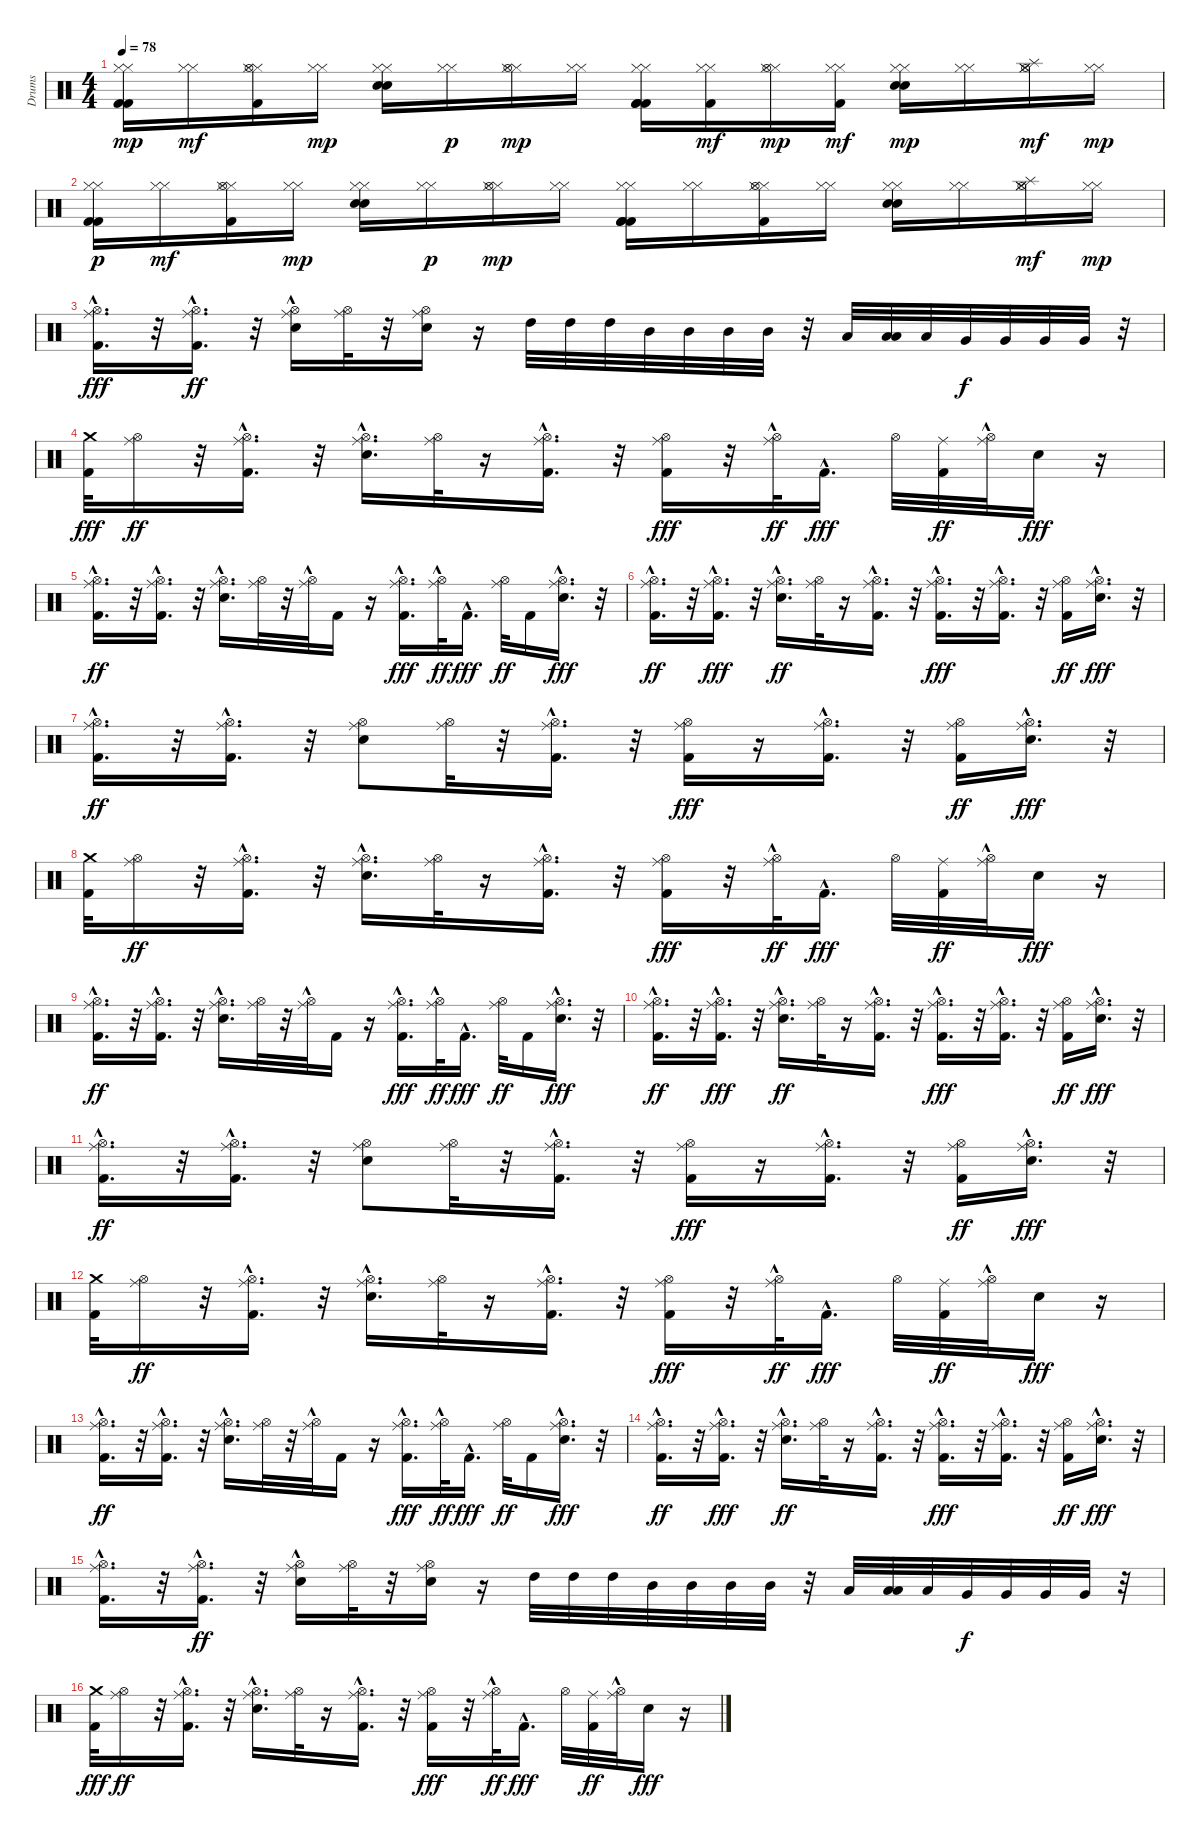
\track ("Drums" "Drums") {instrument percussion}
\staff {score}
\articulation defaults
\ts (4 4)
\tempo 78
\clef neutral
\ks c
("Kick (hit) 2" "Hi-Hat (closed)" "Kick (hit) 2" "Hi-Hat (closed)").16{dy mp} ("Hi-Hat (closed)" "Hi-Hat (closed)").16{dy mf} ("Hi-Hat (closed)" "Hi-Hat (closed)" "Kick (hit) 2" "Hi-Hat (open)").16 ("Hi-Hat (closed)" "Hi-Hat (closed)").16{dy mp} ("Snare (hit) 2" "Hi-Hat (closed)" "Snare (hit) 2" "Hi-Hat (closed)").16 ("Hi-Hat (closed)" "Hi-Hat (closed)").16{dy p} ("Hi-Hat (closed)" "Hi-Hat (closed)" "Hi-Hat (open)").16{dy mp} ("Hi-Hat (closed)" "Hi-Hat (closed)").16 ("Kick (hit) 2" "Hi-Hat (closed)" "Kick (hit) 2" "Hi-Hat (closed)" "Kick (hit) 2").16 ("Hi-Hat (closed)" "Hi-Hat (closed)" "Kick (hit) 2").16{dy mf} ("Hi-Hat (closed)" "Hi-Hat (closed)" "Hi-Hat (open)").16{dy mp} ("Hi-Hat (closed)" "Hi-Hat (closed)" "Kick (hit) 2").16{dy mf} ("Snare (hit) 2" "Hi-Hat (closed)" "Snare (hit) 2" "Hi-Hat (closed)").16{dy mp} ("Hi-Hat (closed)" "Hi-Hat (closed)").16 ("Hi-Hat (closed)" "Hi-Hat (closed)" "Hi-Hat (open)" "Splash (hit)").16{dy mf} ("Hi-Hat (closed)" "Hi-Hat (closed)").16{dy mp} |
("Kick (hit) 2" "Hi-Hat (closed)" "Kick (hit) 2" "Hi-Hat (closed)").16{dy p} ("Hi-Hat (closed)" "Hi-Hat (closed)").16{dy mf} ("Hi-Hat (closed)" "Hi-Hat (closed)" "Kick (hit) 2" "Hi-Hat (open)").16 ("Hi-Hat (closed)" "Hi-Hat (closed)").16{dy mp} ("Snare (hit) 2" "Hi-Hat (closed)" "Snare (hit) 2" "Hi-Hat (closed)").16 ("Hi-Hat (closed)" "Hi-Hat (closed)").16{dy p} ("Hi-Hat (closed)" "Hi-Hat (closed)" "Hi-Hat (open)").16{dy mp} ("Hi-Hat (closed)" "Hi-Hat (closed)").16 ("Kick (hit) 2" "Hi-Hat (closed)" "Kick (hit) 2" "Hi-Hat (closed)" "Kick (hit) 2").16 ("Hi-Hat (closed)" "Hi-Hat (closed)").16 ("Kick (hit) 2" "Hi-Hat (closed)" "Hi-Hat (closed)" "Hi-Hat (open)").16 ("Hi-Hat (closed)" "Hi-Hat (closed)").16 ("Snare (hit) 2" "Hi-Hat (closed)" "Snare (hit) 2" "Hi-Hat (closed)").16 ("Hi-Hat (closed)" "Hi-Hat (closed)").16 ("Hi-Hat (closed)" "Hi-Hat (closed)" "Hi-Hat (open)" "Splash (hit)").16{dy mf} ("Hi-Hat (closed)" "Hi-Hat (closed)").16{dy mp} |
("Ride (middle)" "Hi-Hat (open)" "Kick (hit) 2"{hac}).16{d dy fff} r.32 ("Kick (hit) 2"{hac} "Ride (middle)" "Hi-Hat (open)").16{d dy ff} r.32 ("Snare (hit) 2"{hac} "Ride (middle)" "Hi-Hat (open)").16 ("Ride (middle)" "Hi-Hat (open)").32 r.32 ("Snare (hit) 2" "Ride (middle)" "Hi-Hat (open)").16 r.16 "High Tom (hit)".32 "High Tom (hit)".32 "High Tom (hit)".32 "Mid Tom (hit)".32 "Mid Tom (hit)".32 "Mid Tom (hit)".32 "Mid Tom (hit)".32 r.32 "Low Tom (hit)".32 ("Low Tom (hit)" "Low Tom (hit)").32 "Low Tom (hit)".32 "Very Low Tom (hit)".32{dy f} "Very Low Tom (hit)".32 "Very Low Tom (hit)".32 "Very Low Tom (hit)".32 r.32 |
("Kick (hit) 2" "Crash medium (hit)").32{dy fff} ("Ride (middle)" "Hi-Hat (open)").16{dy ff} r.32 ("Kick (hit) 2"{hac} "Ride (middle)" "Hi-Hat (open)").16{d} r.32 ("Hi-Hat (open)"{hac} "Ride (middle)"{hac} "Snare (hit) 2").16{d} ("Ride (middle)" "Hi-Hat (open)").32 r.16 ("Hi-Hat (open)"{hac} "Ride (middle)"{hac} "Kick (hit) 2").16{d} r.32 ("Hi-Hat (open)" "Ride (middle)" "Kick (hit) 2").16{dy fff} r.32 ("Hi-Hat (open)"{hac} "Ride (middle)"{hac}).32{dy ff} "Kick (hit) 2"{hac}.16{d dy fff} "Hi-Hat (open)".32 ("Ride (middle)" "Kick (hit) 2").32{dy ff} ("Ride (middle)"{hac} "Hi-Hat (open)"{hac}).32 "Snare (hit) 2".16{dy fff} r.16 |
("Hi-Hat (open)"{hac} "Kick (hit) 2" "Ride (middle)"{hac}).16{d dy ff} r.32 ("Hi-Hat (open)" "Ride (middle)" "Kick (hit) 2"{hac}).16{d} r.32 ("Hi-Hat (open)"{hac} "Ride (middle)"{hac} "Snare (hit) 2").16{d} ("Ride (middle)" "Hi-Hat (open)").32 r.32 ("Hi-Hat (open)"{hac} "Ride (middle)"{hac}).32 "Kick (hit) 2".16 r.16 ("Hi-Hat (open)"{hac} "Ride (middle)"{hac} "Kick (hit) 2").16{d dy fff} ("Hi-Hat (open)"{hac} "Ride (middle)"{hac}).32{dy ff} "Kick (hit) 2"{hac}.16{d dy fff} ("Hi-Hat (open)" "Ride (middle)").32{dy ff} "Kick (hit) 2".16 ("Hi-Hat (open)"{hac} "Ride (middle)"{hac} "Snare (hit) 2").16{d dy fff} r.32 |
("Kick (hit) 2" "Hi-Hat (open)"{hac} "Ride (middle)"{hac}).16{d dy ff} r.32 ("Kick (hit) 2"{hac} "Ride (middle)" "Hi-Hat (open)"{hac}).16{d dy fff} r.32 ("Hi-Hat (open)"{hac} "Ride (middle)"{hac} "Snare (hit) 2").16{d dy ff} ("Ride (middle)" "Hi-Hat (open)").32 r.16 ("Hi-Hat (open)"{hac} "Ride (middle)"{hac} "Kick (hit) 2").16{d} r.32 ("Hi-Hat (open)"{hac} "Ride (middle)"{hac} "Kick (hit) 2").16{d dy fff} r.32 ("Hi-Hat (open)"{hac} "Ride (middle)"{hac} "Kick (hit) 2"{hac}).16{d} r.32 ("Hi-Hat (open)" "Ride (middle)" "Kick (hit) 2").16{dy ff} ("Hi-Hat (open)"{hac} "Ride (middle)"{hac} "Snare (hit) 2").16{d dy fff} r.32 |
("Kick (hit) 2" "Hi-Hat (open)"{hac} "Ride (middle)"{hac}).16{d dy ff} r.32 ("Kick (hit) 2"{hac} "Hi-Hat (open)"{hac} "Ride (middle)").16{d} r.32 ("Hi-Hat (open)" "Snare (hit) 2" "Ride (middle)").8 ("Hi-Hat (open)" "Ride (middle)").32 r.32 ("Hi-Hat (open)"{hac} "Ride (middle)"{hac} "Kick (hit) 2").16{d} r.32 ("Hi-Hat (open)" "Ride (middle)" "Kick (hit) 2").16{dy fff} r.16 ("Hi-Hat (open)"{hac} "Ride (middle)"{hac} "Kick (hit) 2"{hac}).16{d} r.32 ("Ride (middle)" "Hi-Hat (open)" "Kick (hit) 2").16{dy ff} ("Hi-Hat (open)"{hac} "Ride (middle)"{hac} "Snare (hit) 2").16{d dy fff} r.32 |
("Kick (hit) 2" "Crash medium (hit)").32 ("Ride (middle)" "Hi-Hat (open)").16{dy ff} r.32 ("Kick (hit) 2"{hac} "Ride (middle)" "Hi-Hat (open)").16{d} r.32 ("Hi-Hat (open)"{hac} "Ride (middle)"{hac} "Snare (hit) 2").16{d} ("Ride (middle)" "Hi-Hat (open)").32 r.16 ("Hi-Hat (open)"{hac} "Ride (middle)"{hac} "Kick (hit) 2").16{d} r.32 ("Hi-Hat (open)" "Ride (middle)" "Kick (hit) 2").16{dy fff} r.32 ("Hi-Hat (open)"{hac} "Ride (middle)"{hac}).32{dy ff} "Kick (hit) 2"{hac}.16{d dy fff} "Hi-Hat (open)".32 ("Ride (middle)" "Kick (hit) 2").32{dy ff} ("Ride (middle)"{hac} "Hi-Hat (open)"{hac}).32 "Snare (hit) 2".16{dy fff} r.16 |
("Hi-Hat (open)"{hac} "Kick (hit) 2" "Ride (middle)"{hac}).16{d dy ff} r.32 ("Hi-Hat (open)" "Ride (middle)" "Kick (hit) 2"{hac}).16{d} r.32 ("Hi-Hat (open)"{hac} "Ride (middle)"{hac} "Snare (hit) 2").16{d} ("Ride (middle)" "Hi-Hat (open)").32 r.32 ("Hi-Hat (open)"{hac} "Ride (middle)"{hac}).32 "Kick (hit) 2".16 r.16 ("Hi-Hat (open)"{hac} "Ride (middle)"{hac} "Kick (hit) 2").16{d dy fff} ("Hi-Hat (open)"{hac} "Ride (middle)"{hac}).32{dy ff} "Kick (hit) 2"{hac}.16{d dy fff} ("Hi-Hat (open)" "Ride (middle)").32{dy ff} "Kick (hit) 2".16 ("Hi-Hat (open)"{hac} "Ride (middle)"{hac} "Snare (hit) 2").16{d dy fff} r.32 |
("Kick (hit) 2" "Hi-Hat (open)"{hac} "Ride (middle)"{hac}).16{d dy ff} r.32 ("Kick (hit) 2"{hac} "Ride (middle)" "Hi-Hat (open)"{hac}).16{d dy fff} r.32 ("Hi-Hat (open)"{hac} "Ride (middle)"{hac} "Snare (hit) 2").16{d dy ff} ("Ride (middle)" "Hi-Hat (open)").32 r.16 ("Hi-Hat (open)"{hac} "Ride (middle)"{hac} "Kick (hit) 2").16{d} r.32 ("Hi-Hat (open)"{hac} "Ride (middle)"{hac} "Kick (hit) 2").16{d dy fff} r.32 ("Hi-Hat (open)"{hac} "Ride (middle)"{hac} "Kick (hit) 2"{hac}).16{d} r.32 ("Hi-Hat (open)" "Ride (middle)" "Kick (hit) 2").16{dy ff} ("Hi-Hat (open)"{hac} "Ride (middle)"{hac} "Snare (hit) 2").16{d dy fff} r.32 |
("Kick (hit) 2" "Hi-Hat (open)"{hac} "Ride (middle)"{hac}).16{d dy ff} r.32 ("Kick (hit) 2"{hac} "Hi-Hat (open)"{hac} "Ride (middle)").16{d} r.32 ("Hi-Hat (open)" "Snare (hit) 2" "Ride (middle)").8 ("Hi-Hat (open)" "Ride (middle)").32 r.32 ("Hi-Hat (open)"{hac} "Ride (middle)"{hac} "Kick (hit) 2").16{d} r.32 ("Hi-Hat (open)" "Ride (middle)" "Kick (hit) 2").16{dy fff} r.16 ("Hi-Hat (open)"{hac} "Ride (middle)"{hac} "Kick (hit) 2"{hac}).16{d} r.32 ("Ride (middle)" "Hi-Hat (open)" "Kick (hit) 2").16{dy ff} ("Hi-Hat (open)"{hac} "Ride (middle)"{hac} "Snare (hit) 2").16{d dy fff} r.32 |
("Kick (hit) 2" "Crash medium (hit)").32 ("Ride (middle)" "Hi-Hat (open)").16{dy ff} r.32 ("Kick (hit) 2"{hac} "Ride (middle)" "Hi-Hat (open)").16{d} r.32 ("Hi-Hat (open)"{hac} "Ride (middle)"{hac} "Snare (hit) 2").16{d} ("Ride (middle)" "Hi-Hat (open)").32 r.16 ("Hi-Hat (open)"{hac} "Ride (middle)"{hac} "Kick (hit) 2").16{d} r.32 ("Hi-Hat (open)" "Ride (middle)" "Kick (hit) 2").16{dy fff} r.32 ("Hi-Hat (open)"{hac} "Ride (middle)"{hac}).32{dy ff} "Kick (hit) 2"{hac}.16{d dy fff} "Hi-Hat (open)".32 ("Ride (middle)" "Kick (hit) 2").32{dy ff} ("Ride (middle)"{hac} "Hi-Hat (open)"{hac}).32 "Snare (hit) 2".16{dy fff} r.16 |
("Hi-Hat (open)"{hac} "Kick (hit) 2" "Ride (middle)"{hac}).16{d dy ff} r.32 ("Hi-Hat (open)" "Ride (middle)" "Kick (hit) 2"{hac}).16{d} r.32 ("Hi-Hat (open)"{hac} "Ride (middle)"{hac} "Snare (hit) 2").16{d} ("Ride (middle)" "Hi-Hat (open)").32 r.32 ("Hi-Hat (open)"{hac} "Ride (middle)"{hac}).32 "Kick (hit) 2".16 r.16 ("Hi-Hat (open)"{hac} "Ride (middle)"{hac} "Kick (hit) 2").16{d dy fff} ("Hi-Hat (open)"{hac} "Ride (middle)"{hac}).32{dy ff} "Kick (hit) 2"{hac}.16{d dy fff} ("Hi-Hat (open)" "Ride (middle)").32{dy ff} "Kick (hit) 2".16 ("Hi-Hat (open)"{hac} "Ride (middle)"{hac} "Snare (hit) 2").16{d dy fff} r.32 |
("Kick (hit) 2" "Hi-Hat (open)"{hac} "Ride (middle)"{hac}).16{d dy ff} r.32 ("Kick (hit) 2"{hac} "Ride (middle)" "Hi-Hat (open)"{hac}).16{d dy fff} r.32 ("Hi-Hat (open)"{hac} "Ride (middle)"{hac} "Snare (hit) 2").16{d dy ff} ("Ride (middle)" "Hi-Hat (open)").32 r.16 ("Hi-Hat (open)"{hac} "Ride (middle)"{hac} "Kick (hit) 2").16{d} r.32 ("Hi-Hat (open)"{hac} "Ride (middle)"{hac} "Kick (hit) 2").16{d dy fff} r.32 ("Hi-Hat (open)"{hac} "Ride (middle)"{hac} "Kick (hit) 2"{hac}).16{d} r.32 ("Hi-Hat (open)" "Ride (middle)" "Kick (hit) 2").16{dy ff} ("Hi-Hat (open)"{hac} "Ride (middle)"{hac} "Snare (hit) 2").16{d dy fff} r.32 |
("Ride (middle)" "Hi-Hat (open)" "Kick (hit) 2"{hac}).16{d} r.32 ("Kick (hit) 2"{hac} "Ride (middle)" "Hi-Hat (open)").16{d dy ff} r.32 ("Snare (hit) 2"{hac} "Ride (middle)" "Hi-Hat (open)").16 ("Ride (middle)" "Hi-Hat (open)").32 r.32 ("Snare (hit) 2" "Ride (middle)" "Hi-Hat (open)").16 r.16 "High Tom (hit)".32 "High Tom (hit)".32 "High Tom (hit)".32 "Mid Tom (hit)".32 "Mid Tom (hit)".32 "Mid Tom (hit)".32 "Mid Tom (hit)".32 r.32 "Low Tom (hit)".32 ("Low Tom (hit)" "Low Tom (hit)").32 "Low Tom (hit)".32 "Very Low Tom (hit)".32{dy f} "Very Low Tom (hit)".32 "Very Low Tom (hit)".32 "Very Low Tom (hit)".32 r.32 |
("Kick (hit) 2" "Crash medium (hit)").32{dy fff} ("Ride (middle)" "Hi-Hat (open)").16{dy ff} r.32 ("Kick (hit) 2"{hac} "Ride (middle)" "Hi-Hat (open)").16{d} r.32 ("Hi-Hat (open)"{hac} "Ride (middle)"{hac} "Snare (hit) 2").16{d} ("Ride (middle)" "Hi-Hat (open)").32 r.16 ("Hi-Hat (open)"{hac} "Ride (middle)"{hac} "Kick (hit) 2").16{d} r.32 ("Hi-Hat (open)" "Ride (middle)" "Kick (hit) 2").16{dy fff} r.32 ("Hi-Hat (open)"{hac} "Ride (middle)"{hac}).32{dy ff} "Kick (hit) 2"{hac}.16{d dy fff} "Hi-Hat (open)".32 ("Ride (middle)" "Kick (hit) 2").32{dy ff} ("Ride (middle)"{hac} "Hi-Hat (open)"{hac}).32 "Snare (hit) 2".16{dy fff} r.16
